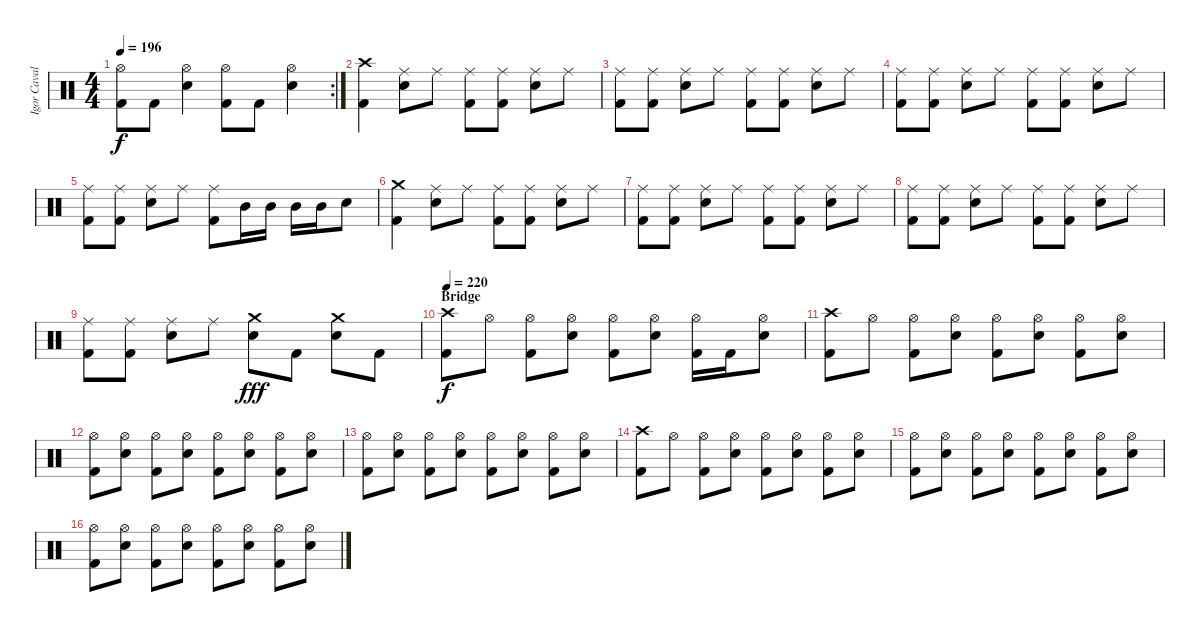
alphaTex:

\track ("Igor Cavalera" "Igor Caval") {instrument percussion}
\staff {score}
\articulation defaults
\rc 2
\ts (4 4)
\tempo 196
\clef neutral
\ks c
("Kick (hit) 2" "Hi-Hat (open)").8{dy f} "Kick (hit) 2".8 ("Snare (hit) 2" "Hi-Hat (open)").4 ("Kick (hit) 2" "Hi-Hat (open)").8 "Kick (hit) 2".8 ("Snare (hit) 2" "Hi-Hat (open)").4 |
("Kick (hit) 2" "Crash high (hit)").4 ("Snare (hit) 2" "Ride (middle)").8 "Ride (middle)".8 ("Kick (hit) 2" "Ride (middle)").8 ("Kick (hit) 2" "Ride (middle)").8 ("Snare (hit) 2" "Ride (middle)").8 "Ride (middle)".8 |
("Kick (hit) 2" "Ride (middle)").8 ("Kick (hit) 2" "Ride (middle)").8 ("Snare (hit) 2" "Ride (middle)").8 "Ride (middle)".8 ("Kick (hit) 2" "Ride (middle)").8 ("Kick (hit) 2" "Ride (middle)").8 ("Snare (hit) 2" "Ride (middle)").8 "Ride (middle)".8 |
("Kick (hit) 2" "Ride (middle)").8 ("Kick (hit) 2" "Ride (middle)").8 ("Snare (hit) 2" "Ride (middle)").8 "Ride (middle)".8 ("Kick (hit) 2" "Ride (middle)").8 ("Kick (hit) 2" "Ride (middle)").8 ("Snare (hit) 2" "Ride (middle)").8 "Ride (middle)".8 |
("Kick (hit) 2" "Ride (middle)").8 ("Kick (hit) 2" "Ride (middle)").8 ("Snare (hit) 2" "Ride (middle)").8 "Ride (middle)".8 ("Kick (hit) 2" "Ride (middle)").8 "Mid Tom (hit)".16 "Mid Tom (hit)".16 "Mid Tom (hit)".16 "Mid Tom (hit)".16 "Snare (hit) 2".8 |
("Kick (hit) 2" "Crash medium (hit)").4 ("Snare (hit) 2" "Ride (middle)").8 "Ride (middle)".8 ("Kick (hit) 2" "Ride (middle)").8 ("Kick (hit) 2" "Ride (middle)").8 ("Snare (hit) 2" "Ride (middle)").8 "Ride (middle)".8 |
("Kick (hit) 2" "Ride (middle)").8 ("Kick (hit) 2" "Ride (middle)").8 ("Snare (hit) 2" "Ride (middle)").8 "Ride (middle)".8 ("Kick (hit) 2" "Ride (middle)").8 ("Kick (hit) 2" "Ride (middle)").8 ("Snare (hit) 2" "Ride (middle)").8 "Ride (middle)".8 |
("Kick (hit) 2" "Ride (middle)").8 ("Kick (hit) 2" "Ride (middle)").8 ("Snare (hit) 2" "Ride (middle)").8 "Ride (middle)".8 ("Kick (hit) 2" "Ride (middle)").8 ("Kick (hit) 2" "Ride (middle)").8 ("Snare (hit) 2" "Ride (middle)").8 "Ride (middle)".8 |
("Kick (hit) 2" "Ride (middle)").8 ("Kick (hit) 2" "Ride (middle)").8 ("Snare (hit) 2" "Ride (middle)").8 "Ride (middle)".8 ("Snare (hit) 2" "Crash medium (hit)").8{dy fff} "Kick (hit) 2".8 ("Snare (hit) 2" "Crash medium (hit)").8 "Kick (hit) 2".8 |
\section ("" "Bridge")
\tempo 220
("Kick (hit) 2" "Crash high (hit)").8{dy f} "Hi-Hat (open)".8 ("Kick (hit) 2" "Hi-Hat (open)").8 ("Snare (hit) 2" "Hi-Hat (open)").8 ("Kick (hit) 2" "Hi-Hat (open)").8 ("Snare (hit) 2" "Hi-Hat (open)").8 ("Kick (hit) 2" "Hi-Hat (open)").16 "Kick (hit) 2".16 ("Snare (hit) 2" "Hi-Hat (open)").8 |
("Kick (hit) 2" "Crash high (hit)").8 "Hi-Hat (open)".8 ("Kick (hit) 2" "Hi-Hat (open)").8 ("Snare (hit) 2" "Hi-Hat (open)").8 ("Kick (hit) 2" "Hi-Hat (open)").8 ("Snare (hit) 2" "Hi-Hat (open)").8 ("Kick (hit) 2" "Hi-Hat (open)").8 ("Snare (hit) 2" "Hi-Hat (open)").8 |
("Kick (hit) 2" "Hi-Hat (open)").8 ("Snare (hit) 2" "Hi-Hat (open)").8 ("Kick (hit) 2" "Hi-Hat (open)").8 ("Snare (hit) 2" "Hi-Hat (open)").8 ("Kick (hit) 2" "Hi-Hat (open)").8 ("Snare (hit) 2" "Hi-Hat (open)").8 ("Kick (hit) 2" "Hi-Hat (open)").8 ("Snare (hit) 2" "Hi-Hat (open)").8 |
("Kick (hit) 2" "Hi-Hat (open)").8 ("Snare (hit) 2" "Hi-Hat (open)").8 ("Kick (hit) 2" "Hi-Hat (open)").8 ("Snare (hit) 2" "Hi-Hat (open)").8 ("Kick (hit) 2" "Hi-Hat (open)").8 ("Snare (hit) 2" "Hi-Hat (open)").8 ("Kick (hit) 2" "Hi-Hat (open)").8 ("Snare (hit) 2" "Hi-Hat (open)").8 |
("Kick (hit) 2" "Crash high (hit)").8 "Hi-Hat (open)".8 ("Kick (hit) 2" "Hi-Hat (open)").8 ("Snare (hit) 2" "Hi-Hat (open)").8 ("Kick (hit) 2" "Hi-Hat (open)").8 ("Snare (hit) 2" "Hi-Hat (open)").8 ("Kick (hit) 2" "Hi-Hat (open)").8 ("Snare (hit) 2" "Hi-Hat (open)").8 |
("Kick (hit) 2" "Hi-Hat (open)").8 ("Snare (hit) 2" "Hi-Hat (open)").8 ("Kick (hit) 2" "Hi-Hat (open)").8 ("Snare (hit) 2" "Hi-Hat (open)").8 ("Kick (hit) 2" "Hi-Hat (open)").8 ("Snare (hit) 2" "Hi-Hat (open)").8 ("Kick (hit) 2" "Hi-Hat (open)").8 ("Snare (hit) 2" "Hi-Hat (open)").8 |
("Kick (hit) 2" "Hi-Hat (open)").8 ("Snare (hit) 2" "Hi-Hat (open)").8 ("Kick (hit) 2" "Hi-Hat (open)").8 ("Snare (hit) 2" "Hi-Hat (open)").8 ("Kick (hit) 2" "Hi-Hat (open)").8 ("Snare (hit) 2" "Hi-Hat (open)").8 ("Kick (hit) 2" "Hi-Hat (open)").8 ("Snare (hit) 2" "Hi-Hat (open)").8
